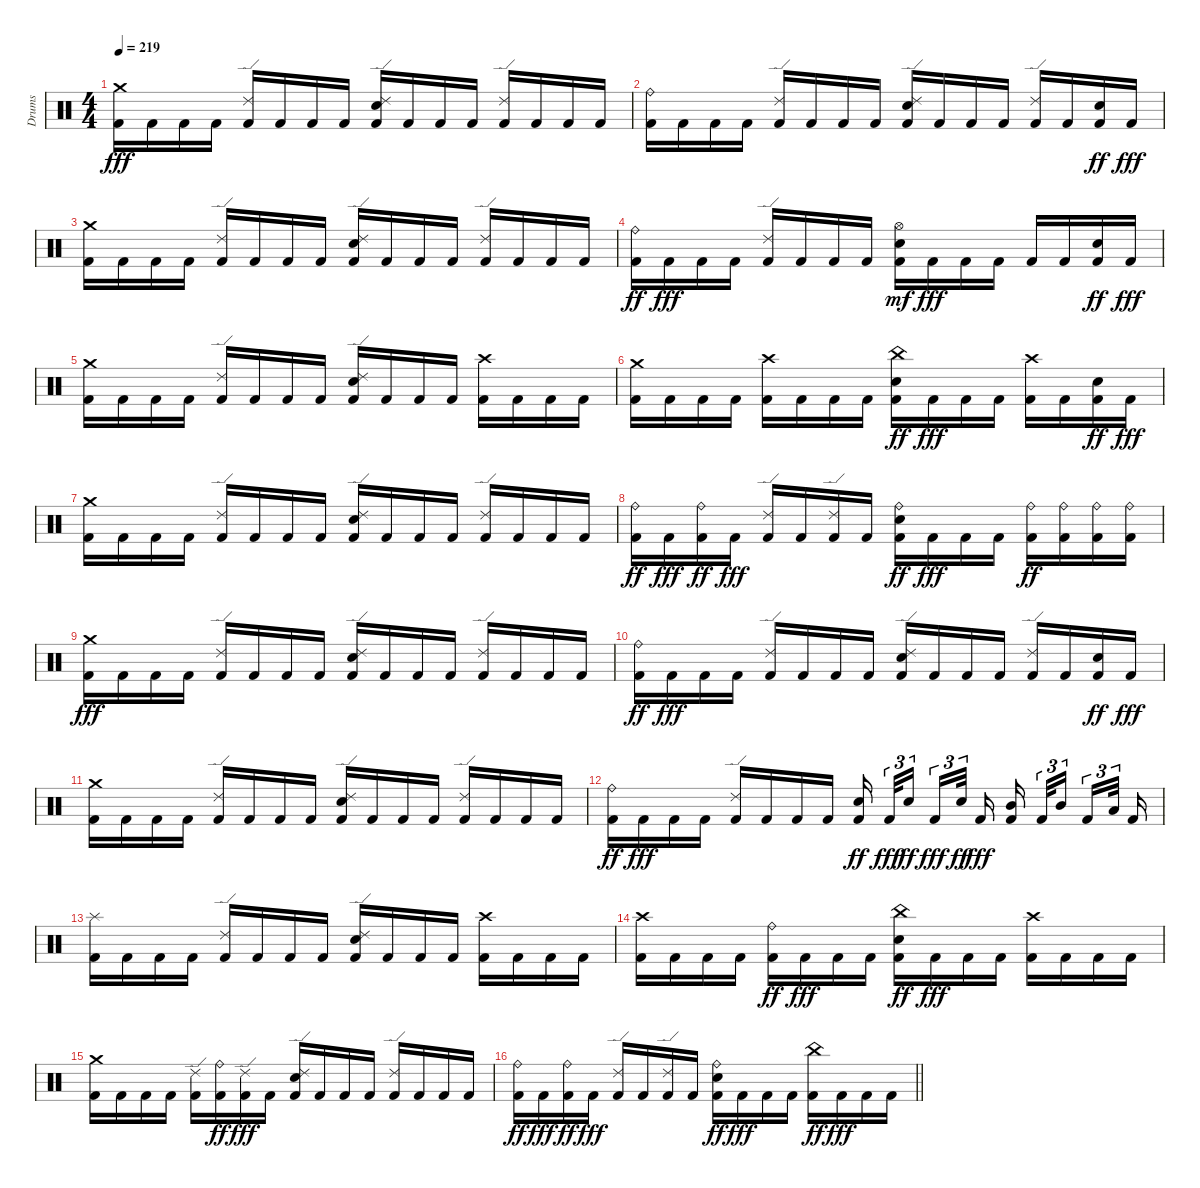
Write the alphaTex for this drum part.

\track ("Drums" "Drums") {instrument percussion}
\staff {score}
\articulation defaults
\ts (4 4)
\tempo 219
\clef neutral
\ks c
("Kick (hit) 2" "Crash medium (hit)").16{dy fff} "Kick (hit) 2".16 "Kick (hit) 2".16 "Kick (hit) 2".16 ("Kick (hit) 2" "Ride (edge) 2").16 "Kick (hit) 2".16 "Kick (hit) 2".16 "Kick (hit) 2".16 ("Kick (hit) 2" "Snare (hit) 2" "Ride (edge) 2").16 "Kick (hit) 2".16 "Kick (hit) 2".16 "Kick (hit) 2".16 ("Kick (hit) 2" "Ride (edge) 2").16 "Kick (hit) 2".16 "Kick (hit) 2".16 "Kick (hit) 2".16 |
("Kick (hit) 2" "Ride (bell)").16 "Kick (hit) 2".16 "Kick (hit) 2".16 "Kick (hit) 2".16 ("Kick (hit) 2" "Ride (edge) 2").16 "Kick (hit) 2".16 "Kick (hit) 2".16 "Kick (hit) 2".16 ("Kick (hit) 2" "Snare (hit) 2" "Ride (edge) 2").16 "Kick (hit) 2".16 "Kick (hit) 2".16 "Kick (hit) 2".16 ("Kick (hit) 2" "Ride (edge) 2").16 "Kick (hit) 2".16 ("Kick (hit) 2" "Snare (hit) 2").16{dy ff} "Kick (hit) 2".16{dy fff} |
("Kick (hit) 2" "Crash medium (hit)").16 "Kick (hit) 2".16 "Kick (hit) 2".16 "Kick (hit) 2".16 ("Kick (hit) 2" "Ride (edge) 2").16 "Kick (hit) 2".16 "Kick (hit) 2".16 "Kick (hit) 2".16 ("Kick (hit) 2" "Snare (hit) 2" "Ride (edge) 2").16 "Kick (hit) 2".16 "Kick (hit) 2".16 "Kick (hit) 2".16 ("Kick (hit) 2" "Ride (edge) 2").16 "Kick (hit) 2".16 "Kick (hit) 2".16 "Kick (hit) 2".16 |
("Kick (hit) 2" "Ride (bell)").16{dy ff} "Kick (hit) 2".16{dy fff} "Kick (hit) 2".16 "Kick (hit) 2".16 ("Kick (hit) 2" "Ride (edge) 2").16 "Kick (hit) 2".16 "Kick (hit) 2".16 "Kick (hit) 2".16 ("Kick (hit) 2" "Snare (hit) 2" "Hi-Hat (open)").16{dy mf} "Kick (hit) 2".16{dy fff} "Kick (hit) 2".16 "Kick (hit) 2".16 "Kick (hit) 2".16 "Kick (hit) 2".16 ("Kick (hit) 2" "Snare (hit) 2").16{dy ff} "Kick (hit) 2".16{dy fff} |
("Kick (hit) 2" "Crash medium (hit)").16 "Kick (hit) 2".16 "Kick (hit) 2".16 "Kick (hit) 2".16 ("Kick (hit) 2" "Ride (edge) 2").16 "Kick (hit) 2".16 "Kick (hit) 2".16 "Kick (hit) 2".16 ("Kick (hit) 2" "Snare (hit) 2" "Ride (edge) 2").16 "Kick (hit) 2".16 "Kick (hit) 2".16 "Kick (hit) 2".16 ("Kick (hit) 2" "Crash high (hit)").16 "Kick (hit) 2".16 "Kick (hit) 2".16 "Kick (hit) 2".16 |
("Kick (hit) 2" "Crash medium (hit)").16 "Kick (hit) 2".16 "Kick (hit) 2".16 "Kick (hit) 2".16 ("Kick (hit) 2" "Crash high (hit)").16 "Kick (hit) 2".16 "Kick (hit) 2".16 "Kick (hit) 2".16 ("Kick (hit) 2" "Snare (hit) 2" "China (hit)").16{dy ff} "Kick (hit) 2".16{dy fff} "Kick (hit) 2".16 "Kick (hit) 2".16 ("Kick (hit) 2" "Crash high (hit)").16 "Kick (hit) 2".16 ("Kick (hit) 2" "Snare (hit) 2").16{dy ff} "Kick (hit) 2".16{dy fff} |
("Kick (hit) 2" "Crash medium (hit)").16 "Kick (hit) 2".16 "Kick (hit) 2".16 "Kick (hit) 2".16 ("Kick (hit) 2" "Ride (edge) 2").16 "Kick (hit) 2".16 "Kick (hit) 2".16 "Kick (hit) 2".16 ("Kick (hit) 2" "Snare (hit) 2" "Ride (edge) 2").16 "Kick (hit) 2".16 "Kick (hit) 2".16 "Kick (hit) 2".16 ("Kick (hit) 2" "Ride (edge) 2").16 "Kick (hit) 2".16 "Kick (hit) 2".16 "Kick (hit) 2".16 |
("Kick (hit) 2" "Ride (bell)").16{dy ff} "Kick (hit) 2".16{dy fff} ("Kick (hit) 2" "Ride (bell)").16{dy ff} "Kick (hit) 2".16{dy fff} ("Kick (hit) 2" "Ride (edge) 2").16 "Kick (hit) 2".16 ("Kick (hit) 2" "Ride (edge) 2").16 "Kick (hit) 2".16 ("Kick (hit) 2" "Snare (hit) 2" "Ride (bell)").16{dy ff} "Kick (hit) 2".16{dy fff} "Kick (hit) 2".16 "Kick (hit) 2".16 ("Kick (hit) 2" "Ride (bell)").16{dy ff} ("Kick (hit) 2" "Ride (bell)").16 ("Kick (hit) 2" "Ride (bell)").16 ("Kick (hit) 2" "Ride (bell)").16 |
("Kick (hit) 2" "Crash medium (hit)").16{dy fff} "Kick (hit) 2".16 "Kick (hit) 2".16 "Kick (hit) 2".16 ("Kick (hit) 2" "Ride (edge) 2").16 "Kick (hit) 2".16 "Kick (hit) 2".16 "Kick (hit) 2".16 ("Kick (hit) 2" "Snare (hit) 2" "Ride (edge) 2").16 "Kick (hit) 2".16 "Kick (hit) 2".16 "Kick (hit) 2".16 ("Kick (hit) 2" "Ride (edge) 2").16 "Kick (hit) 2".16 "Kick (hit) 2".16 "Kick (hit) 2".16 |
("Kick (hit) 2" "Ride (bell)").16{dy ff} "Kick (hit) 2".16{dy fff} "Kick (hit) 2".16 "Kick (hit) 2".16 ("Kick (hit) 2" "Ride (edge) 2").16 "Kick (hit) 2".16 "Kick (hit) 2".16 "Kick (hit) 2".16 ("Kick (hit) 2" "Snare (hit) 2" "Ride (edge) 2").16 "Kick (hit) 2".16 "Kick (hit) 2".16 "Kick (hit) 2".16 ("Kick (hit) 2" "Ride (edge) 2").16 "Kick (hit) 2".16 ("Kick (hit) 2" "Snare (hit) 2").16{dy ff} "Kick (hit) 2".16{dy fff} |
("Kick (hit) 2" "Crash medium (hit)").16 "Kick (hit) 2".16 "Kick (hit) 2".16 "Kick (hit) 2".16 ("Kick (hit) 2" "Ride (edge) 2").16 "Kick (hit) 2".16 "Kick (hit) 2".16 "Kick (hit) 2".16 ("Kick (hit) 2" "Snare (hit) 2" "Ride (edge) 2").16 "Kick (hit) 2".16 "Kick (hit) 2".16 "Kick (hit) 2".16 ("Kick (hit) 2" "Ride (edge) 2").16 "Kick (hit) 2".16 "Kick (hit) 2".16 "Kick (hit) 2".16 |
("Kick (hit) 2" "Ride (bell)").16{dy ff} "Kick (hit) 2".16{dy fff} "Kick (hit) 2".16 "Kick (hit) 2".16 ("Kick (hit) 2" "Ride (edge) 2").16 "Kick (hit) 2".16 "Kick (hit) 2".16 "Kick (hit) 2".16 ("Kick (hit) 2" "Snare (hit) 2").16{dy ff beam splitsecondary} "Kick (hit) 2".32{tu (3 2) dy fff} "Snare (hit) 2".16{tu (3 2) dy ff beam splitsecondary} "Kick (hit) 2".16{tu (3 2) dy fff} "Snare (hit) 2".32{tu (3 2) dy ff beam splitsecondary} "Kick (hit) 2".16{dy fff} ("Kick (hit) 2" "Mid Tom (hit)").16{beam splitsecondary} "Kick (hit) 2".32{tu (3 2)} "Mid Tom (hit)".16{tu (3 2) beam splitsecondary} "Kick (hit) 2".16{tu (3 2)} "Low Tom (hit)".32{tu (3 2) beam splitsecondary} "Kick (hit) 2".16 |
("Kick (hit) 2" "Splash (hit)").16 "Kick (hit) 2".16 "Kick (hit) 2".16 "Kick (hit) 2".16 ("Kick (hit) 2" "Ride (edge) 2").16 "Kick (hit) 2".16 "Kick (hit) 2".16 "Kick (hit) 2".16 ("Kick (hit) 2" "Snare (hit) 2" "Ride (edge) 2").16 "Kick (hit) 2".16 "Kick (hit) 2".16 "Kick (hit) 2".16 ("Kick (hit) 2" "Crash high (hit)").16 "Kick (hit) 2".16 "Kick (hit) 2".16 "Kick (hit) 2".16 |
("Kick (hit) 2" "Crash high (hit)").16 "Kick (hit) 2".16 "Kick (hit) 2".16 "Kick (hit) 2".16 ("Kick (hit) 2" "Ride (bell)").16{dy ff} "Kick (hit) 2".16{dy fff} "Kick (hit) 2".16 "Kick (hit) 2".16 ("Kick (hit) 2" "Snare (hit) 2" "China (hit)").16{dy ff} "Kick (hit) 2".16{dy fff} "Kick (hit) 2".16 "Kick (hit) 2".16 ("Kick (hit) 2" "Crash high (hit)").16 "Kick (hit) 2".16 "Kick (hit) 2".16 "Kick (hit) 2".16 |
("Kick (hit) 2" "Crash medium (hit)").16 "Kick (hit) 2".16 "Kick (hit) 2".16 "Kick (hit) 2".16 ("Kick (hit) 2" "Ride (edge) 2").16 ("Kick (hit) 2" "Ride (bell)").16{dy ff} ("Kick (hit) 2" "Ride (edge) 2").16{dy fff} "Kick (hit) 2".16 ("Kick (hit) 2" "Snare (hit) 2" "Ride (edge) 2").16 "Kick (hit) 2".16 "Kick (hit) 2".16 "Kick (hit) 2".16 ("Kick (hit) 2" "Ride (edge) 2").16 "Kick (hit) 2".16 "Kick (hit) 2".16 "Kick (hit) 2".16 |
\barLineRight lightlight
("Kick (hit) 2" "Ride (bell)").16{dy ff} "Kick (hit) 2".16{dy fff} ("Kick (hit) 2" "Ride (bell)").16{dy ff} "Kick (hit) 2".16{dy fff} ("Kick (hit) 2" "Ride (edge) 2").16 "Kick (hit) 2".16 ("Kick (hit) 2" "Ride (edge) 2").16 "Kick (hit) 2".16 ("Kick (hit) 2" "Snare (hit) 2" "Ride (bell)").16{dy ff} "Kick (hit) 2".16{dy fff} "Kick (hit) 2".16 "Kick (hit) 2".16 ("Kick (hit) 2" "China (hit)").16{dy ff} "Kick (hit) 2".16{dy fff} "Kick (hit) 2".16 "Kick (hit) 2".16
